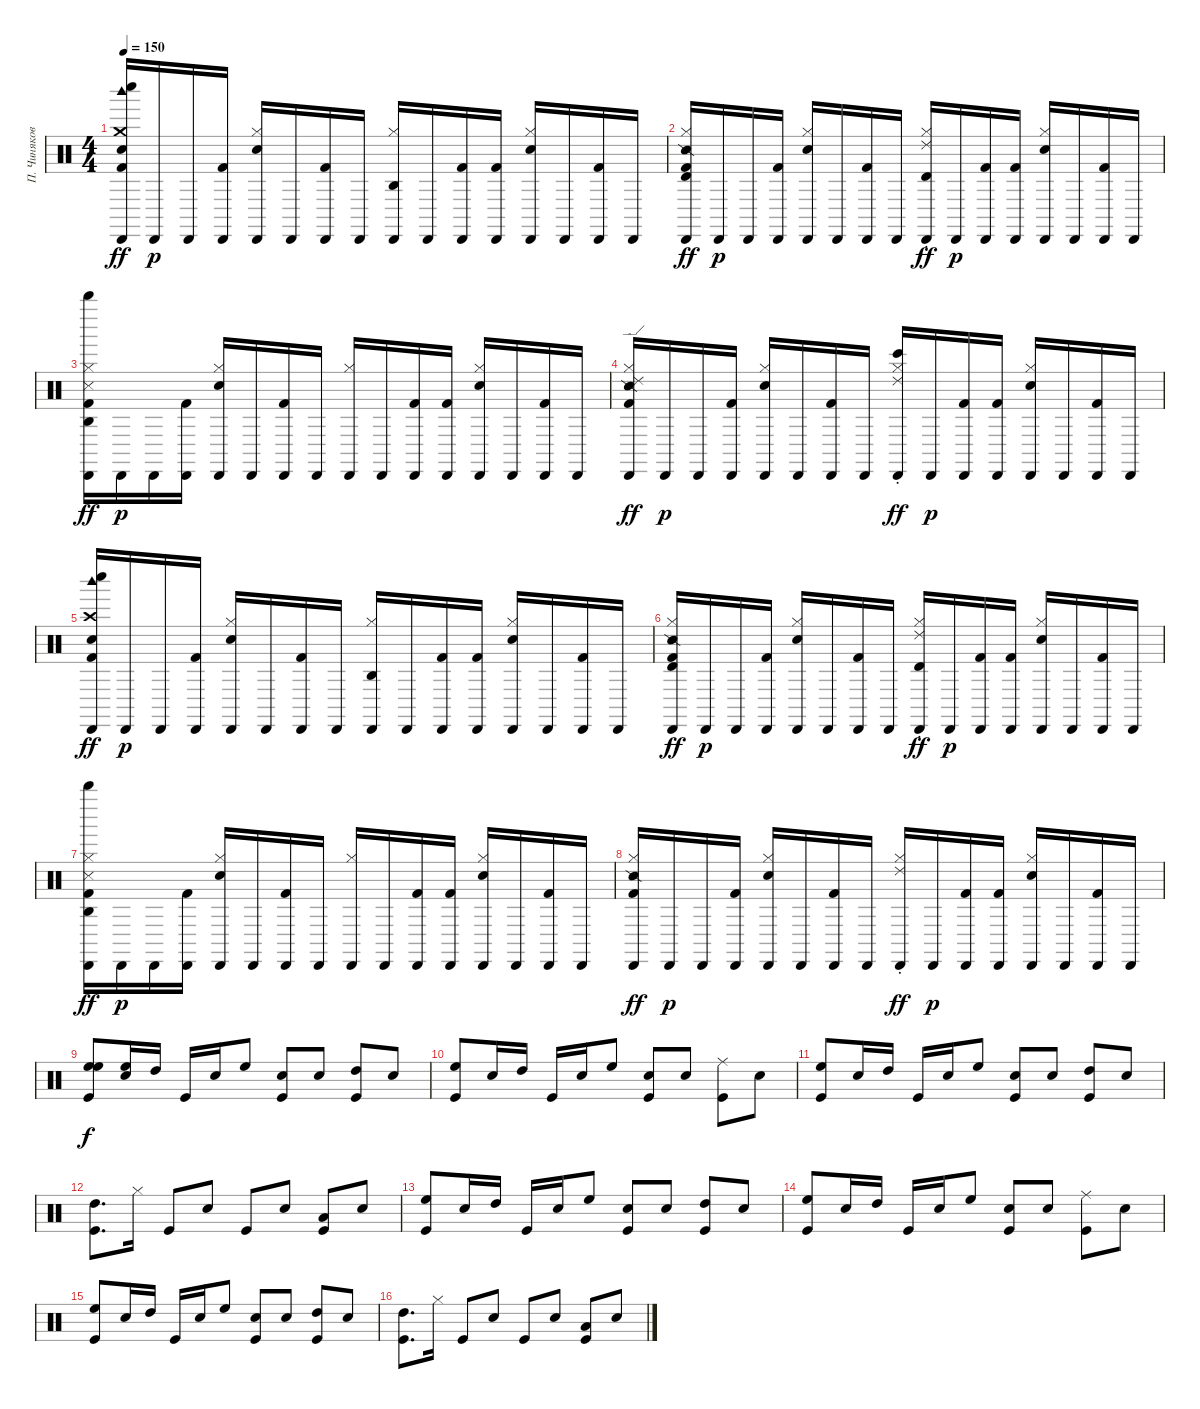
\track ("П. Чиняков" "П. Чиняков") {instrument percussion}
\staff {score}
\articulation defaults
\ts (4 4)
\tempo 150
\clef neutral
\ks c
("Cabasa (hit)" "Crash medium (hit)" "Kick (hit) 2" "Snare (hit) 2" "Woodblock high (hit)" "Whistle low (hit)").16{dy ff} "Cabasa (hit)".16{dy p} "Cabasa (hit)".16 ("Cabasa (hit)" "Kick (hit) 2").16 ("Hi-Hat (closed)" "Cabasa (hit)" "Snare (hit) 2").16 "Cabasa (hit)".16 ("Cabasa (hit)" "Kick (hit) 2").16 "Cabasa (hit)".16 ("Hi-Hat (closed)" "Cabasa (hit)" "Agogo high (hit)").16 "Cabasa (hit)".16 ("Cabasa (hit)" "Kick (hit) 2").16 ("Cabasa (hit)" "Kick (hit) 2").16 ("Hi-Hat (closed)" "Cabasa (hit)" "Snare (hit) 2").16 "Cabasa (hit)".16 ("Cabasa (hit)" "Kick (hit) 2").16 "Cabasa (hit)".16 |
("Hi-Hat (closed)" "Cabasa (hit)" "Kick (hit) 2" "Snare (side stick) 2" "Timbale high (hit)").16{dy ff} "Cabasa (hit)".16{dy p} "Cabasa (hit)".16 ("Cabasa (hit)" "Kick (hit) 2").16 ("Hi-Hat (closed)" "Cabasa (hit)" "Snare (hit) 2").16 "Cabasa (hit)".16 ("Cabasa (hit)" "Kick (hit) 2").16 "Cabasa (hit)".16 ("Hi-Hat (closed)" "Cabasa (hit)" "Ride (choke) 2" "Timbale high (hit)").16{dy ff} "Cabasa (hit)".16{dy p} ("Cabasa (hit)" "Kick (hit) 2").16 ("Cabasa (hit)" "Kick (hit) 2").16 ("Hi-Hat (closed)" "Cabasa (hit)" "Snare (hit) 2").16 "Cabasa (hit)".16 ("Cabasa (hit)" "Kick (hit) 2").16 "Cabasa (hit)".16 |
("Hi-Hat (closed)" "Cabasa (hit)" "Kick (hit) 2" "Metronome (hit)" "Whistle high (hit)" "Agogo high (hit)").16{dy ff} "Cabasa (hit)".16{dy p} "Cabasa (hit)".16 ("Cabasa (hit)" "Kick (hit) 2").16 ("Hi-Hat (closed)" "Cabasa (hit)" "Snare (hit) 2").16 "Cabasa (hit)".16 ("Cabasa (hit)" "Kick (hit) 2").16 "Cabasa (hit)".16 ("Hi-Hat (closed)" "Cabasa (hit)").16 "Cabasa (hit)".16 ("Cabasa (hit)" "Kick (hit) 2").16 ("Cabasa (hit)" "Kick (hit) 2").16 ("Hi-Hat (closed)" "Cabasa (hit)" "Snare (hit) 2").16 "Cabasa (hit)".16 ("Cabasa (hit)" "Kick (hit) 2").16 "Cabasa (hit)".16 |
("Hi-Hat (closed)" "Cabasa (hit)" "Kick (hit) 2" "Snare (side stick) 2" "Ride (edge) 2").16{dy ff} "Cabasa (hit)".16{dy p} "Cabasa (hit)".16 ("Cabasa (hit)" "Kick (hit) 2").16 ("Hi-Hat (closed)" "Cabasa (hit)" "Snare (hit) 2").16 "Cabasa (hit)".16 ("Cabasa (hit)" "Kick (hit) 2").16 "Cabasa (hit)".16 ("Hi-Hat (closed)" "Cabasa (hit)" "Ride (choke) 2" "Bongo High (hit)").16{dy ff} "Cabasa (hit)".16{dy p} ("Cabasa (hit)" "Kick (hit) 2").16 ("Cabasa (hit)" "Kick (hit) 2").16 ("Hi-Hat (closed)" "Cabasa (hit)" "Snare (hit) 2").16 "Cabasa (hit)".16 ("Cabasa (hit)" "Kick (hit) 2").16 "Cabasa (hit)".16 |
("Cabasa (hit)" "Crash high (hit)" "Kick (hit) 2" "Snare (hit) 2" "Woodblock high (hit)" "Whistle low (hit)").16{dy ff} "Cabasa (hit)".16{dy p} "Cabasa (hit)".16 ("Cabasa (hit)" "Kick (hit) 2").16 ("Hi-Hat (closed)" "Cabasa (hit)" "Snare (hit) 2").16 "Cabasa (hit)".16 ("Cabasa (hit)" "Kick (hit) 2").16 "Cabasa (hit)".16 ("Hi-Hat (closed)" "Cabasa (hit)" "Agogo high (hit)").16 "Cabasa (hit)".16 ("Cabasa (hit)" "Kick (hit) 2").16 ("Cabasa (hit)" "Kick (hit) 2").16 ("Hi-Hat (closed)" "Cabasa (hit)" "Snare (hit) 2").16 "Cabasa (hit)".16 ("Cabasa (hit)" "Kick (hit) 2").16 "Cabasa (hit)".16 |
("Hi-Hat (closed)" "Cabasa (hit)" "Kick (hit) 2" "Snare (side stick) 2" "Timbale high (hit)").16{dy ff} "Cabasa (hit)".16{dy p} "Cabasa (hit)".16 ("Cabasa (hit)" "Kick (hit) 2").16 ("Hi-Hat (closed)" "Cabasa (hit)" "Snare (hit) 2").16 "Cabasa (hit)".16 ("Cabasa (hit)" "Kick (hit) 2").16 "Cabasa (hit)".16 ("Hi-Hat (closed)" "Cabasa (hit)" "Ride (choke) 2" "Timbale high (hit)").16{dy ff} "Cabasa (hit)".16{dy p} ("Cabasa (hit)" "Kick (hit) 2").16 ("Cabasa (hit)" "Kick (hit) 2").16 ("Hi-Hat (closed)" "Cabasa (hit)" "Snare (hit) 2").16 "Cabasa (hit)".16 ("Cabasa (hit)" "Kick (hit) 2").16 "Cabasa (hit)".16 |
("Hi-Hat (closed)" "Cabasa (hit)" "Kick (hit) 2" "Metronome (hit)" "Whistle high (hit)" "Agogo high (hit)").16{dy ff} "Cabasa (hit)".16{dy p} "Cabasa (hit)".16 ("Cabasa (hit)" "Kick (hit) 2").16 ("Hi-Hat (closed)" "Cabasa (hit)" "Snare (hit) 2").16 "Cabasa (hit)".16 ("Cabasa (hit)" "Kick (hit) 2").16 "Cabasa (hit)".16 ("Hi-Hat (closed)" "Cabasa (hit)").16 "Cabasa (hit)".16 ("Cabasa (hit)" "Kick (hit) 2").16 ("Cabasa (hit)" "Kick (hit) 2").16 ("Hi-Hat (closed)" "Cabasa (hit)" "Snare (hit) 2").16 "Cabasa (hit)".16 ("Cabasa (hit)" "Kick (hit) 2").16 "Cabasa (hit)".16 |
("Hi-Hat (closed)" "Cabasa (hit)" "Kick (hit) 2" "Snare (side stick) 2").16{dy ff} "Cabasa (hit)".16{dy p} "Cabasa (hit)".16 ("Cabasa (hit)" "Kick (hit) 2").16 ("Hi-Hat (closed)" "Cabasa (hit)" "Snare (hit) 2").16 "Cabasa (hit)".16 ("Cabasa (hit)" "Kick (hit) 2").16 "Cabasa (hit)".16 ("Hi-Hat (closed)" "Cabasa (hit)" "Ride (choke) 2").16{dy ff} "Cabasa (hit)".16{dy p} ("Cabasa (hit)" "Kick (hit) 2").16 ("Cabasa (hit)" "Kick (hit) 2").16 ("Hi-Hat (closed)" "Cabasa (hit)" "Snare (hit) 2").16 "Cabasa (hit)".16 ("Cabasa (hit)" "Kick (hit) 2").16 "Cabasa (hit)".16 |
("Kick (hit)" "High Floor Tom (hit)" "High Floor Tom (hit)").8{dy f} ("Snare (hit) 2" "High Floor Tom (hit)").16 "High Tom (hit)".16 "Kick (hit)".16 "Snare (hit) 2".16 "High Floor Tom (hit)".8 ("Kick (hit)" "Snare (hit) 2").8 "Snare (hit) 2".8 ("Kick (hit)" "High Tom (hit)").8 "Snare (hit) 2".8 |
("Kick (hit)" "High Floor Tom (hit)").8 "Snare (hit) 2".16 "High Tom (hit)".16 "Kick (hit)".16 "Snare (hit) 2".16 "High Floor Tom (hit)".8 ("Kick (hit)" "Snare (hit) 2").8 "Snare (hit) 2".8 ("Kick (hit)" "Ride (middle)").8 "Snare (hit) 2".8 |
("Kick (hit)" "High Floor Tom (hit)").8 "Snare (hit) 2".16 "High Tom (hit)".16 "Kick (hit)".16 "Snare (hit) 2".16 "High Floor Tom (hit)".8 ("Kick (hit)" "Snare (hit) 2").8 "Snare (hit) 2".8 ("Kick (hit)" "High Tom (hit)").8 "Snare (hit) 2".8 |
("Kick (hit)" "High Tom (hit)").8{d} "Hi-Hat (closed)".16 "Kick (hit)".8 "Hand Clap (hit)".8 "Kick (hit)".8 "Snare (hit) 2".8 ("Kick (hit)" "Low Floor Tom (hit)").8 "Snare (hit) 2".8 |
("Kick (hit)" "High Floor Tom (hit)").8 "Snare (hit) 2".16 "High Tom (hit)".16 "Kick (hit)".16 "Snare (hit) 2".16 "High Floor Tom (hit)".8 ("Kick (hit)" "Snare (hit) 2").8 "Snare (hit) 2".8 ("Kick (hit)" "High Tom (hit)").8 "Snare (hit) 2".8 |
("Kick (hit)" "High Floor Tom (hit)").8 "Snare (hit) 2".16 "High Tom (hit)".16 "Kick (hit)".16 "Snare (hit) 2".16 "High Floor Tom (hit)".8 ("Kick (hit)" "Snare (hit) 2").8 "Snare (hit) 2".8 ("Kick (hit)" "Ride (middle)").8 "Snare (hit) 2".8 |
("Kick (hit)" "High Floor Tom (hit)").8 "Snare (hit) 2".16 "High Tom (hit)".16 "Kick (hit)".16 "Snare (hit) 2".16 "High Floor Tom (hit)".8 ("Kick (hit)" "Snare (hit) 2").8 "Snare (hit) 2".8 ("Kick (hit)" "High Tom (hit)").8 "Snare (hit) 2".8 |
("Kick (hit)" "High Tom (hit)").8{d} "Hi-Hat (closed)".16 "Kick (hit)".8 "Hand Clap (hit)".8 "Kick (hit)".8 "Snare (hit) 2".8 ("Kick (hit)" "Low Floor Tom (hit)").8 "Snare (hit) 2".8
